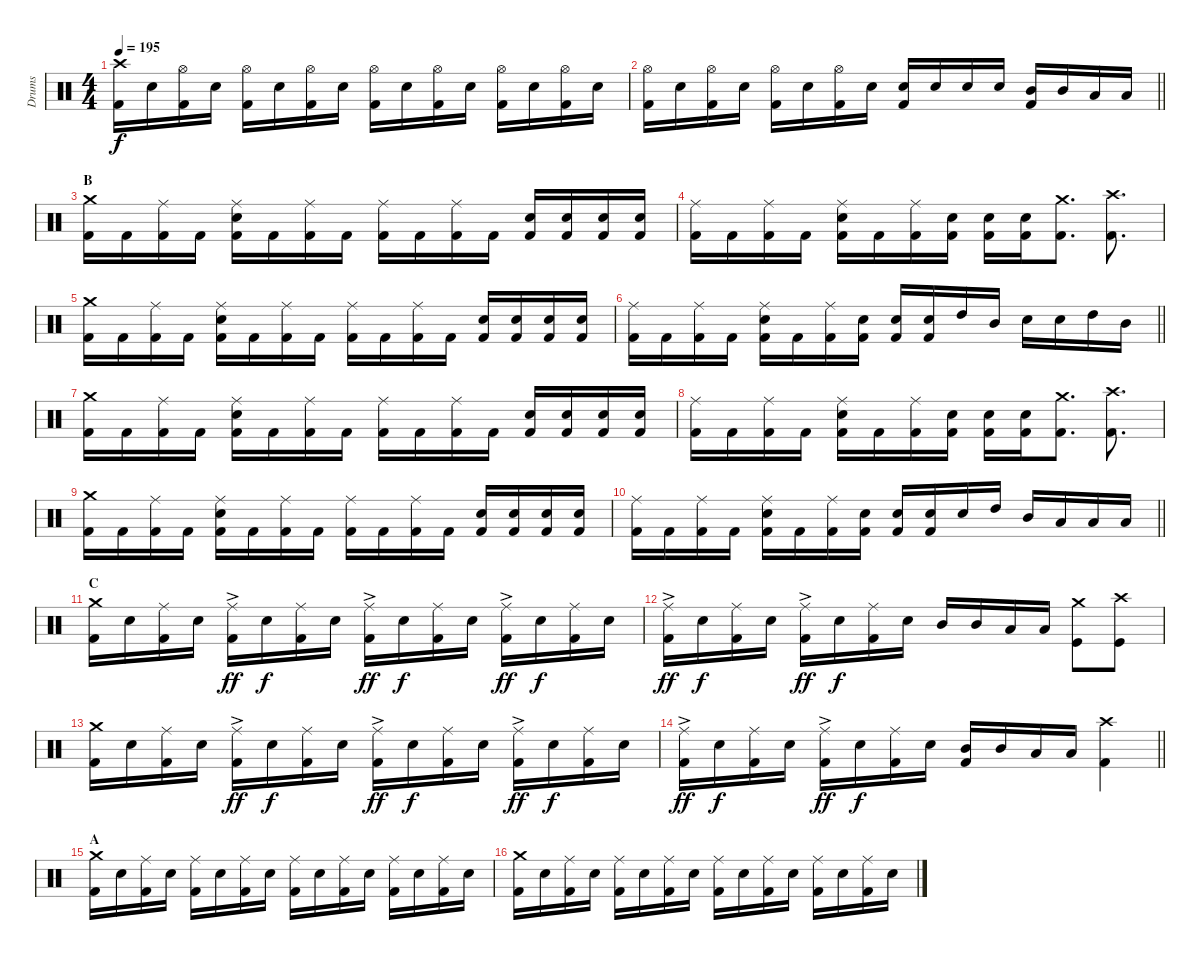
\track ("Drums" "Drums") {instrument percussion}
\staff {score}
\articulation defaults
\ts (4 4)
\tempo 195
\clef neutral
\ks c
("Crash high (hit)" "Kick (hit) 2").16{dy f} "Snare (hit) 2".16 ("Hi-Hat (open)" "Kick (hit) 2").16 "Snare (hit) 2".16 ("Hi-Hat (open)" "Kick (hit) 2").16 "Snare (hit) 2".16 ("Hi-Hat (open)" "Kick (hit) 2").16 "Snare (hit) 2".16 ("Hi-Hat (open)" "Kick (hit) 2").16 "Snare (hit) 2".16 ("Hi-Hat (open)" "Kick (hit) 2").16 "Snare (hit) 2".16 ("Hi-Hat (open)" "Kick (hit) 2").16 "Snare (hit) 2".16 ("Hi-Hat (open)" "Kick (hit) 2").16 "Snare (hit) 2".16 |
\barLineRight lightlight
("Hi-Hat (open)" "Kick (hit) 2").16 "Snare (hit) 2".16 ("Hi-Hat (open)" "Kick (hit) 2").16 "Snare (hit) 2".16 ("Hi-Hat (open)" "Kick (hit) 2").16 "Snare (hit) 2".16 ("Hi-Hat (open)" "Kick (hit) 2").16 "Snare (hit) 2".16 ("Snare (hit) 2" "Kick (hit) 2").16 "Snare (hit) 2".16 "Snare (hit) 2".16 "Snare (hit) 2".16 ("Mid Tom (hit)" "Kick (hit) 2").16 "Mid Tom (hit)".16 "Low Tom (hit)".16 "Low Tom (hit)".16 |
\section ("" "B")
("Crash medium (hit)" "Kick (hit) 2").16 "Kick (hit) 2".16 ("Ride (middle)" "Kick (hit) 2").16 "Kick (hit) 2".16 ("Ride (middle)" "Snare (hit) 2" "Kick (hit) 2").16 "Kick (hit) 2".16 ("Ride (middle)" "Kick (hit) 2").16 "Kick (hit) 2".16 ("Ride (middle)" "Kick (hit) 2").16 "Kick (hit) 2".16 ("Ride (middle)" "Kick (hit) 2").16 "Kick (hit) 2".16 ("Snare (hit) 2" "Kick (hit) 2").16 ("Snare (hit) 2" "Kick (hit) 2").16 ("Snare (hit) 2" "Kick (hit) 2").16 ("Snare (hit) 2" "Kick (hit) 2").16 |
("Ride (middle)" "Kick (hit) 2").16 "Kick (hit) 2".16 ("Ride (middle)" "Kick (hit) 2").16 "Kick (hit) 2".16 ("Ride (middle)" "Snare (hit) 2" "Kick (hit) 2").16 "Kick (hit) 2".16 ("Ride (middle)" "Kick (hit) 2").16 ("Snare (hit) 2" "Kick (hit) 2").16 ("Snare (hit) 2" "Kick (hit) 2").16 ("Snare (hit) 2" "Kick (hit) 2").16 ("Crash medium (hit)" "Kick (hit) 2").8{d} ("Crash high (hit)" "Kick (hit) 2").8{d} |
("Crash medium (hit)" "Kick (hit) 2").16 "Kick (hit) 2".16 ("Ride (middle)" "Kick (hit) 2").16 "Kick (hit) 2".16 ("Ride (middle)" "Snare (hit) 2" "Kick (hit) 2").16 "Kick (hit) 2".16 ("Ride (middle)" "Kick (hit) 2").16 "Kick (hit) 2".16 ("Ride (middle)" "Kick (hit) 2").16 "Kick (hit) 2".16 ("Ride (middle)" "Kick (hit) 2").16 "Kick (hit) 2".16 ("Snare (hit) 2" "Kick (hit) 2").16 ("Snare (hit) 2" "Kick (hit) 2").16 ("Snare (hit) 2" "Kick (hit) 2").16 ("Snare (hit) 2" "Kick (hit) 2").16 |
\barLineRight lightlight
("Ride (middle)" "Kick (hit) 2").16 "Kick (hit) 2".16 ("Ride (middle)" "Kick (hit) 2").16 "Kick (hit) 2".16 ("Ride (middle)" "Snare (hit) 2" "Kick (hit) 2").16 "Kick (hit) 2".16 ("Ride (middle)" "Kick (hit) 2").16 ("Snare (hit) 2" "Kick (hit) 2").16 ("Snare (hit) 2" "Kick (hit) 2").16 ("Snare (hit) 2" "Kick (hit) 2").16 "High Tom (hit)".16 "Mid Tom (hit)".16 "Snare (hit) 2".16 "Snare (hit) 2".16 "High Tom (hit)".16 "Mid Tom (hit)".16 |
("Crash medium (hit)" "Kick (hit) 2").16 "Kick (hit) 2".16 ("Ride (middle)" "Kick (hit) 2").16 "Kick (hit) 2".16 ("Ride (middle)" "Snare (hit) 2" "Kick (hit) 2").16 "Kick (hit) 2".16 ("Ride (middle)" "Kick (hit) 2").16 "Kick (hit) 2".16 ("Ride (middle)" "Kick (hit) 2").16 "Kick (hit) 2".16 ("Ride (middle)" "Kick (hit) 2").16 "Kick (hit) 2".16 ("Snare (hit) 2" "Kick (hit) 2").16 ("Snare (hit) 2" "Kick (hit) 2").16 ("Snare (hit) 2" "Kick (hit) 2").16 ("Snare (hit) 2" "Kick (hit) 2").16 |
("Ride (middle)" "Kick (hit) 2").16 "Kick (hit) 2".16 ("Ride (middle)" "Kick (hit) 2").16 "Kick (hit) 2".16 ("Ride (middle)" "Snare (hit) 2" "Kick (hit) 2").16 "Kick (hit) 2".16 ("Ride (middle)" "Kick (hit) 2").16 ("Snare (hit) 2" "Kick (hit) 2").16 ("Snare (hit) 2" "Kick (hit) 2").16 ("Snare (hit) 2" "Kick (hit) 2").16 ("Crash medium (hit)" "Kick (hit) 2").8{d} ("Crash high (hit)" "Kick (hit) 2").8{d} |
("Crash medium (hit)" "Kick (hit) 2").16 "Kick (hit) 2".16 ("Ride (middle)" "Kick (hit) 2").16 "Kick (hit) 2".16 ("Ride (middle)" "Snare (hit) 2" "Kick (hit) 2").16 "Kick (hit) 2".16 ("Ride (middle)" "Kick (hit) 2").16 "Kick (hit) 2".16 ("Ride (middle)" "Kick (hit) 2").16 "Kick (hit) 2".16 ("Ride (middle)" "Kick (hit) 2").16 "Kick (hit) 2".16 ("Snare (hit) 2" "Kick (hit) 2").16 ("Snare (hit) 2" "Kick (hit) 2").16 ("Snare (hit) 2" "Kick (hit) 2").16 ("Snare (hit) 2" "Kick (hit) 2").16 |
\barLineRight lightlight
("Ride (middle)" "Kick (hit) 2").16 "Kick (hit) 2".16 ("Ride (middle)" "Kick (hit) 2").16 "Kick (hit) 2".16 ("Ride (middle)" "Snare (hit) 2" "Kick (hit) 2").16 "Kick (hit) 2".16 ("Ride (middle)" "Kick (hit) 2").16 ("Snare (hit) 2" "Kick (hit) 2").16 ("Snare (hit) 2" "Kick (hit) 2").16 ("Snare (hit) 2" "Kick (hit) 2").16 "Snare (hit) 2".16 "High Tom (hit)".16 "Mid Tom (hit)".16 "Low Tom (hit)".16 "Low Tom (hit)".16 "Low Tom (hit)".16 |
\section ("" "C")
("Crash medium (hit)" "Kick (hit) 2").16 "Snare (hit) 2".16 ("Ride (middle)" "Kick (hit) 2").16 "Snare (hit) 2".16 ("Ride (middle)"{ac} "Kick (hit) 2").16{dy ff} "Snare (hit) 2".16{dy f} ("Ride (middle)" "Kick (hit) 2").16 "Snare (hit) 2".16 ("Ride (middle)"{ac} "Kick (hit) 2").16{dy ff} "Snare (hit) 2".16{dy f} ("Ride (middle)" "Kick (hit) 2").16 "Snare (hit) 2".16 ("Ride (middle)"{ac} "Kick (hit) 2").16{dy ff} "Snare (hit) 2".16{dy f} ("Ride (middle)" "Kick (hit) 2").16 "Snare (hit) 2".16 |
("Ride (middle)"{ac} "Kick (hit) 2").16{dy ff} "Snare (hit) 2".16{dy f} ("Ride (middle)" "Kick (hit) 2").16 "Snare (hit) 2".16 ("Ride (middle)"{ac} "Kick (hit) 2").16{dy ff} "Snare (hit) 2".16{dy f} ("Ride (middle)" "Kick (hit) 2").16 "Snare (hit) 2".16 "Mid Tom (hit)".16 "Mid Tom (hit)".16 "Low Tom (hit)".16 "Low Tom (hit)".16 ("Crash medium (hit)" "Kick (hit)").8 ("Crash high (hit)" "Kick (hit)").8 |
("Crash medium (hit)" "Kick (hit) 2").16 "Snare (hit) 2".16 ("Ride (middle)" "Kick (hit) 2").16 "Snare (hit) 2".16 ("Ride (middle)"{ac} "Kick (hit) 2").16{dy ff} "Snare (hit) 2".16{dy f} ("Ride (middle)" "Kick (hit) 2").16 "Snare (hit) 2".16 ("Ride (middle)"{ac} "Kick (hit) 2").16{dy ff} "Snare (hit) 2".16{dy f} ("Ride (middle)" "Kick (hit) 2").16 "Snare (hit) 2".16 ("Ride (middle)"{ac} "Kick (hit) 2").16{dy ff} "Snare (hit) 2".16{dy f} ("Ride (middle)" "Kick (hit) 2").16 "Snare (hit) 2".16 |
\barLineRight lightlight
("Ride (middle)"{ac} "Kick (hit) 2").16{dy ff} "Snare (hit) 2".16{dy f} ("Ride (middle)" "Kick (hit) 2").16 "Snare (hit) 2".16 ("Ride (middle)"{ac} "Kick (hit) 2").16{dy ff} "Snare (hit) 2".16{dy f} ("Ride (middle)" "Kick (hit) 2").16 "Snare (hit) 2".16 ("Mid Tom (hit)" "Kick (hit) 2").16 "Mid Tom (hit)".16 "Low Tom (hit)".16 "Low Tom (hit)".16 ("Crash high (hit)" "Kick (hit) 2").4 |
\section ("" "A")
("Crash medium (hit)" "Kick (hit) 2").16 "Snare (hit) 2".16 ("Ride (middle)" "Kick (hit) 2").16 "Snare (hit) 2".16 ("Ride (middle)" "Kick (hit) 2").16 "Snare (hit) 2".16 ("Ride (middle)" "Kick (hit) 2").16 "Snare (hit) 2".16 ("Ride (middle)" "Kick (hit) 2").16 "Snare (hit) 2".16 ("Ride (middle)" "Kick (hit) 2").16 "Snare (hit) 2".16 ("Ride (middle)" "Kick (hit) 2").16 "Snare (hit) 2".16 ("Ride (middle)" "Kick (hit) 2").16 "Snare (hit) 2".16 |
("Crash medium (hit)" "Kick (hit) 2").16 "Snare (hit) 2".16 ("Ride (middle)" "Kick (hit) 2").16 "Snare (hit) 2".16 ("Ride (middle)" "Kick (hit) 2").16 "Snare (hit) 2".16 ("Ride (middle)" "Kick (hit) 2").16 "Snare (hit) 2".16 ("Ride (middle)" "Kick (hit) 2").16 "Snare (hit) 2".16 ("Ride (middle)" "Kick (hit) 2").16 "Snare (hit) 2".16 ("Ride (middle)" "Kick (hit) 2").16 "Snare (hit) 2".16 ("Ride (middle)" "Kick (hit) 2").16 "Snare (hit) 2".16
